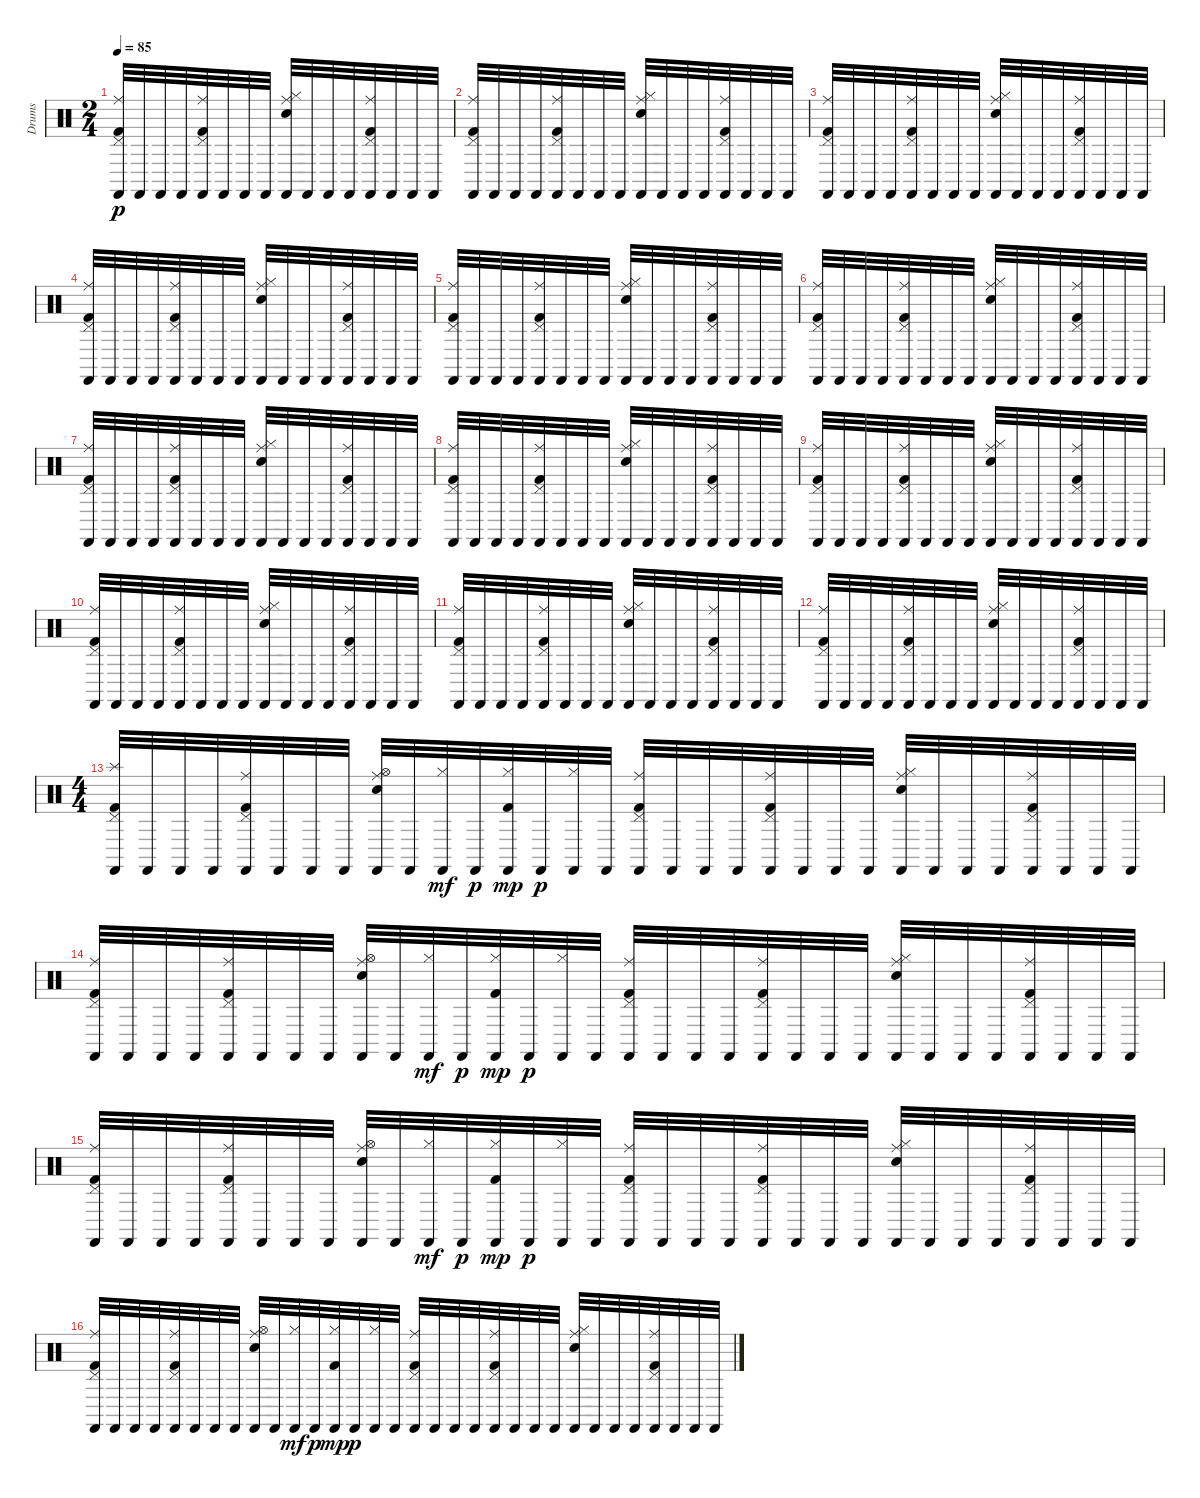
\track ("Drums" "Drums") {instrument percussion}
\staff {score}
\articulation defaults
\ts (2 4)
\tempo 85
\clef neutral
\ks c
("Ride (middle)" "Castanets (hit)" "Pedal Hi-Hat (hit)" "Kick (hit) 2").32{dy p} "Castanets (hit)".32 "Castanets (hit)".32 "Castanets (hit)".32 ("Ride (middle)" "Castanets (hit)" "Pedal Hi-Hat (hit)" "Kick (hit) 2").32 "Castanets (hit)".32 "Castanets (hit)".32 "Castanets (hit)".32 ("Ride (middle)" "Castanets (hit)" "Hi-Hat (closed)" "Electric Snare (hit)").32 "Castanets (hit)".32 "Castanets (hit)".32 "Castanets (hit)".32 ("Ride (middle)" "Castanets (hit)" "Pedal Hi-Hat (hit)" "Kick (hit) 2").32 "Castanets (hit)".32 "Castanets (hit)".32 "Castanets (hit)".32 |
("Ride (middle)" "Castanets (hit)" "Pedal Hi-Hat (hit)" "Kick (hit) 2").32 "Castanets (hit)".32 "Castanets (hit)".32 "Castanets (hit)".32 ("Ride (middle)" "Castanets (hit)" "Pedal Hi-Hat (hit)" "Kick (hit) 2").32 "Castanets (hit)".32 "Castanets (hit)".32 "Castanets (hit)".32 ("Ride (middle)" "Castanets (hit)" "Hi-Hat (closed)" "Electric Snare (hit)").32 "Castanets (hit)".32 "Castanets (hit)".32 "Castanets (hit)".32 ("Ride (middle)" "Castanets (hit)" "Pedal Hi-Hat (hit)" "Kick (hit) 2").32 "Castanets (hit)".32 "Castanets (hit)".32 "Castanets (hit)".32 |
("Ride (middle)" "Castanets (hit)" "Pedal Hi-Hat (hit)" "Kick (hit) 2").32 "Castanets (hit)".32 "Castanets (hit)".32 "Castanets (hit)".32 ("Ride (middle)" "Castanets (hit)" "Pedal Hi-Hat (hit)" "Kick (hit) 2").32 "Castanets (hit)".32 "Castanets (hit)".32 "Castanets (hit)".32 ("Ride (middle)" "Castanets (hit)" "Hi-Hat (closed)" "Electric Snare (hit)").32 "Castanets (hit)".32 "Castanets (hit)".32 "Castanets (hit)".32 ("Ride (middle)" "Castanets (hit)" "Pedal Hi-Hat (hit)" "Kick (hit) 2").32 "Castanets (hit)".32 "Castanets (hit)".32 "Castanets (hit)".32 |
("Ride (middle)" "Castanets (hit)" "Pedal Hi-Hat (hit)" "Kick (hit) 2").32 "Castanets (hit)".32 "Castanets (hit)".32 "Castanets (hit)".32 ("Ride (middle)" "Castanets (hit)" "Pedal Hi-Hat (hit)" "Kick (hit) 2").32 "Castanets (hit)".32 "Castanets (hit)".32 "Castanets (hit)".32 ("Ride (middle)" "Castanets (hit)" "Hi-Hat (closed)" "Electric Snare (hit)").32 "Castanets (hit)".32 "Castanets (hit)".32 "Castanets (hit)".32 ("Ride (middle)" "Castanets (hit)" "Pedal Hi-Hat (hit)" "Kick (hit) 2").32 "Castanets (hit)".32 "Castanets (hit)".32 "Castanets (hit)".32 |
("Ride (middle)" "Castanets (hit)" "Pedal Hi-Hat (hit)" "Kick (hit) 2").32 "Castanets (hit)".32 "Castanets (hit)".32 "Castanets (hit)".32 ("Ride (middle)" "Castanets (hit)" "Pedal Hi-Hat (hit)" "Kick (hit) 2").32 "Castanets (hit)".32 "Castanets (hit)".32 "Castanets (hit)".32 ("Ride (middle)" "Castanets (hit)" "Hi-Hat (closed)" "Electric Snare (hit)").32 "Castanets (hit)".32 "Castanets (hit)".32 "Castanets (hit)".32 ("Ride (middle)" "Castanets (hit)" "Pedal Hi-Hat (hit)" "Kick (hit) 2").32 "Castanets (hit)".32 "Castanets (hit)".32 "Castanets (hit)".32 |
("Ride (middle)" "Castanets (hit)" "Pedal Hi-Hat (hit)" "Kick (hit) 2").32 "Castanets (hit)".32 "Castanets (hit)".32 "Castanets (hit)".32 ("Ride (middle)" "Castanets (hit)" "Pedal Hi-Hat (hit)" "Kick (hit) 2").32 "Castanets (hit)".32 "Castanets (hit)".32 "Castanets (hit)".32 ("Ride (middle)" "Castanets (hit)" "Hi-Hat (closed)" "Electric Snare (hit)").32 "Castanets (hit)".32 "Castanets (hit)".32 "Castanets (hit)".32 ("Ride (middle)" "Castanets (hit)" "Pedal Hi-Hat (hit)" "Kick (hit) 2").32 "Castanets (hit)".32 "Castanets (hit)".32 "Castanets (hit)".32 |
("Ride (middle)" "Castanets (hit)" "Pedal Hi-Hat (hit)" "Kick (hit) 2").32 "Castanets (hit)".32 "Castanets (hit)".32 "Castanets (hit)".32 ("Ride (middle)" "Castanets (hit)" "Pedal Hi-Hat (hit)" "Kick (hit) 2").32 "Castanets (hit)".32 "Castanets (hit)".32 "Castanets (hit)".32 ("Ride (middle)" "Castanets (hit)" "Hi-Hat (closed)" "Electric Snare (hit)").32 "Castanets (hit)".32 "Castanets (hit)".32 "Castanets (hit)".32 ("Ride (middle)" "Castanets (hit)" "Pedal Hi-Hat (hit)" "Kick (hit) 2").32 "Castanets (hit)".32 "Castanets (hit)".32 "Castanets (hit)".32 |
("Ride (middle)" "Castanets (hit)" "Pedal Hi-Hat (hit)" "Kick (hit) 2").32 "Castanets (hit)".32 "Castanets (hit)".32 "Castanets (hit)".32 ("Ride (middle)" "Castanets (hit)" "Pedal Hi-Hat (hit)" "Kick (hit) 2").32 "Castanets (hit)".32 "Castanets (hit)".32 "Castanets (hit)".32 ("Ride (middle)" "Castanets (hit)" "Hi-Hat (closed)" "Electric Snare (hit)").32 "Castanets (hit)".32 "Castanets (hit)".32 "Castanets (hit)".32 ("Ride (middle)" "Castanets (hit)" "Pedal Hi-Hat (hit)" "Kick (hit) 2").32 "Castanets (hit)".32 "Castanets (hit)".32 "Castanets (hit)".32 |
("Ride (middle)" "Castanets (hit)" "Pedal Hi-Hat (hit)" "Kick (hit) 2").32 "Castanets (hit)".32 "Castanets (hit)".32 "Castanets (hit)".32 ("Ride (middle)" "Castanets (hit)" "Pedal Hi-Hat (hit)" "Kick (hit) 2").32 "Castanets (hit)".32 "Castanets (hit)".32 "Castanets (hit)".32 ("Ride (middle)" "Castanets (hit)" "Hi-Hat (closed)" "Electric Snare (hit)").32 "Castanets (hit)".32 "Castanets (hit)".32 "Castanets (hit)".32 ("Ride (middle)" "Castanets (hit)" "Pedal Hi-Hat (hit)" "Kick (hit) 2").32 "Castanets (hit)".32 "Castanets (hit)".32 "Castanets (hit)".32 |
("Ride (middle)" "Castanets (hit)" "Pedal Hi-Hat (hit)" "Kick (hit) 2").32 "Castanets (hit)".32 "Castanets (hit)".32 "Castanets (hit)".32 ("Ride (middle)" "Castanets (hit)" "Pedal Hi-Hat (hit)" "Kick (hit) 2").32 "Castanets (hit)".32 "Castanets (hit)".32 "Castanets (hit)".32 ("Ride (middle)" "Castanets (hit)" "Hi-Hat (closed)" "Electric Snare (hit)").32 "Castanets (hit)".32 "Castanets (hit)".32 "Castanets (hit)".32 ("Ride (middle)" "Castanets (hit)" "Pedal Hi-Hat (hit)" "Kick (hit) 2").32 "Castanets (hit)".32 "Castanets (hit)".32 "Castanets (hit)".32 |
("Ride (middle)" "Castanets (hit)" "Pedal Hi-Hat (hit)" "Kick (hit) 2").32 "Castanets (hit)".32 "Castanets (hit)".32 "Castanets (hit)".32 ("Ride (middle)" "Castanets (hit)" "Pedal Hi-Hat (hit)" "Kick (hit) 2").32 "Castanets (hit)".32 "Castanets (hit)".32 "Castanets (hit)".32 ("Ride (middle)" "Castanets (hit)" "Hi-Hat (closed)" "Electric Snare (hit)").32 "Castanets (hit)".32 "Castanets (hit)".32 "Castanets (hit)".32 ("Ride (middle)" "Castanets (hit)" "Pedal Hi-Hat (hit)" "Kick (hit) 2").32 "Castanets (hit)".32 "Castanets (hit)".32 "Castanets (hit)".32 |
("Ride (middle)" "Castanets (hit)" "Pedal Hi-Hat (hit)" "Kick (hit) 2").32 "Castanets (hit)".32 "Castanets (hit)".32 "Castanets (hit)".32 ("Ride (middle)" "Castanets (hit)" "Pedal Hi-Hat (hit)" "Kick (hit) 2").32 "Castanets (hit)".32 "Castanets (hit)".32 "Castanets (hit)".32 ("Ride (middle)" "Castanets (hit)" "Hi-Hat (closed)" "Electric Snare (hit)").32 "Castanets (hit)".32 "Castanets (hit)".32 "Castanets (hit)".32 ("Ride (middle)" "Castanets (hit)" "Pedal Hi-Hat (hit)" "Kick (hit) 2").32 "Castanets (hit)".32 "Castanets (hit)".32 "Castanets (hit)".32 |
\ts (4 4)
("Splash (hit)" "Castanets (hit)" "Pedal Hi-Hat (hit)" "Kick (hit) 2").32 "Castanets (hit)".32 "Castanets (hit)".32 "Castanets (hit)".32 ("Ride (middle)" "Castanets (hit)" "Pedal Hi-Hat (hit)" "Kick (hit) 2").32 "Castanets (hit)".32 "Castanets (hit)".32 "Castanets (hit)".32 ("Ride (middle)" "Castanets (hit)" "Hi-Hat (open)" "Electric Snare (hit)").32 "Castanets (hit)".32 ("Castanets (hit)" "Hi-Hat (closed)").32{dy mf} "Castanets (hit)".32{dy p} ("Castanets (hit)" "Hi-Hat (closed)" "Kick (hit) 2").32{dy mp} "Castanets (hit)".32{dy p} ("Castanets (hit)" "Hi-Hat (closed)").32 "Castanets (hit)".32 ("Ride (middle)" "Castanets (hit)" "Pedal Hi-Hat (hit)" "Kick (hit) 2").32 "Castanets (hit)".32 "Castanets (hit)".32 "Castanets (hit)".32 ("Ride (middle)" "Castanets (hit)" "Pedal Hi-Hat (hit)" "Kick (hit) 2").32 "Castanets (hit)".32 "Castanets (hit)".32 "Castanets (hit)".32 ("Ride (middle)" "Castanets (hit)" "Hi-Hat (closed)" "Electric Snare (hit)").32 "Castanets (hit)".32 "Castanets (hit)".32 "Castanets (hit)".32 ("Ride (middle)" "Castanets (hit)" "Pedal Hi-Hat (hit)" "Kick (hit) 2").32 "Castanets (hit)".32 "Castanets (hit)".32 "Castanets (hit)".32 |
("Ride (middle)" "Castanets (hit)" "Pedal Hi-Hat (hit)" "Kick (hit) 2").32 "Castanets (hit)".32 "Castanets (hit)".32 "Castanets (hit)".32 ("Ride (middle)" "Castanets (hit)" "Pedal Hi-Hat (hit)" "Kick (hit) 2").32 "Castanets (hit)".32 "Castanets (hit)".32 "Castanets (hit)".32 ("Ride (middle)" "Castanets (hit)" "Hi-Hat (open)" "Electric Snare (hit)").32 "Castanets (hit)".32 ("Castanets (hit)" "Hi-Hat (closed)").32{dy mf} "Castanets (hit)".32{dy p} ("Castanets (hit)" "Hi-Hat (closed)" "Kick (hit) 2").32{dy mp} "Castanets (hit)".32{dy p} ("Castanets (hit)" "Hi-Hat (closed)").32 "Castanets (hit)".32 ("Ride (middle)" "Castanets (hit)" "Pedal Hi-Hat (hit)" "Kick (hit) 2").32 "Castanets (hit)".32 "Castanets (hit)".32 "Castanets (hit)".32 ("Ride (middle)" "Castanets (hit)" "Pedal Hi-Hat (hit)" "Kick (hit) 2").32 "Castanets (hit)".32 "Castanets (hit)".32 "Castanets (hit)".32 ("Ride (middle)" "Castanets (hit)" "Hi-Hat (closed)" "Electric Snare (hit)").32 "Castanets (hit)".32 "Castanets (hit)".32 "Castanets (hit)".32 ("Ride (middle)" "Castanets (hit)" "Pedal Hi-Hat (hit)" "Kick (hit) 2").32 "Castanets (hit)".32 "Castanets (hit)".32 "Castanets (hit)".32 |
("Ride (middle)" "Castanets (hit)" "Pedal Hi-Hat (hit)" "Kick (hit) 2").32 "Castanets (hit)".32 "Castanets (hit)".32 "Castanets (hit)".32 ("Ride (middle)" "Castanets (hit)" "Pedal Hi-Hat (hit)" "Kick (hit) 2").32 "Castanets (hit)".32 "Castanets (hit)".32 "Castanets (hit)".32 ("Ride (middle)" "Castanets (hit)" "Hi-Hat (open)" "Electric Snare (hit)").32 "Castanets (hit)".32 ("Castanets (hit)" "Hi-Hat (closed)").32{dy mf} "Castanets (hit)".32{dy p} ("Castanets (hit)" "Hi-Hat (closed)" "Kick (hit) 2").32{dy mp} "Castanets (hit)".32{dy p} ("Castanets (hit)" "Hi-Hat (closed)").32 "Castanets (hit)".32 ("Ride (middle)" "Castanets (hit)" "Pedal Hi-Hat (hit)" "Kick (hit) 2").32 "Castanets (hit)".32 "Castanets (hit)".32 "Castanets (hit)".32 ("Ride (middle)" "Castanets (hit)" "Pedal Hi-Hat (hit)" "Kick (hit) 2").32 "Castanets (hit)".32 "Castanets (hit)".32 "Castanets (hit)".32 ("Ride (middle)" "Castanets (hit)" "Hi-Hat (closed)" "Electric Snare (hit)").32 "Castanets (hit)".32 "Castanets (hit)".32 "Castanets (hit)".32 ("Ride (middle)" "Castanets (hit)" "Pedal Hi-Hat (hit)" "Kick (hit) 2").32 "Castanets (hit)".32 "Castanets (hit)".32 "Castanets (hit)".32 |
("Ride (middle)" "Castanets (hit)" "Pedal Hi-Hat (hit)" "Kick (hit) 2").32 "Castanets (hit)".32 "Castanets (hit)".32 "Castanets (hit)".32 ("Ride (middle)" "Castanets (hit)" "Pedal Hi-Hat (hit)" "Kick (hit) 2").32 "Castanets (hit)".32 "Castanets (hit)".32 "Castanets (hit)".32 ("Ride (middle)" "Castanets (hit)" "Hi-Hat (open)" "Electric Snare (hit)").32 "Castanets (hit)".32 ("Castanets (hit)" "Hi-Hat (closed)").32{dy mf} "Castanets (hit)".32{dy p} ("Castanets (hit)" "Hi-Hat (closed)" "Kick (hit) 2").32{dy mp} "Castanets (hit)".32{dy p} ("Castanets (hit)" "Hi-Hat (closed)").32 "Castanets (hit)".32 ("Ride (middle)" "Castanets (hit)" "Pedal Hi-Hat (hit)" "Kick (hit) 2").32 "Castanets (hit)".32 "Castanets (hit)".32 "Castanets (hit)".32 ("Ride (middle)" "Castanets (hit)" "Pedal Hi-Hat (hit)" "Kick (hit) 2").32 "Castanets (hit)".32 "Castanets (hit)".32 "Castanets (hit)".32 ("Ride (middle)" "Castanets (hit)" "Hi-Hat (closed)" "Electric Snare (hit)").32 "Castanets (hit)".32 "Castanets (hit)".32 "Castanets (hit)".32 ("Ride (middle)" "Castanets (hit)" "Pedal Hi-Hat (hit)" "Kick (hit) 2").32 "Castanets (hit)".32 "Castanets (hit)".32 "Castanets (hit)".32
